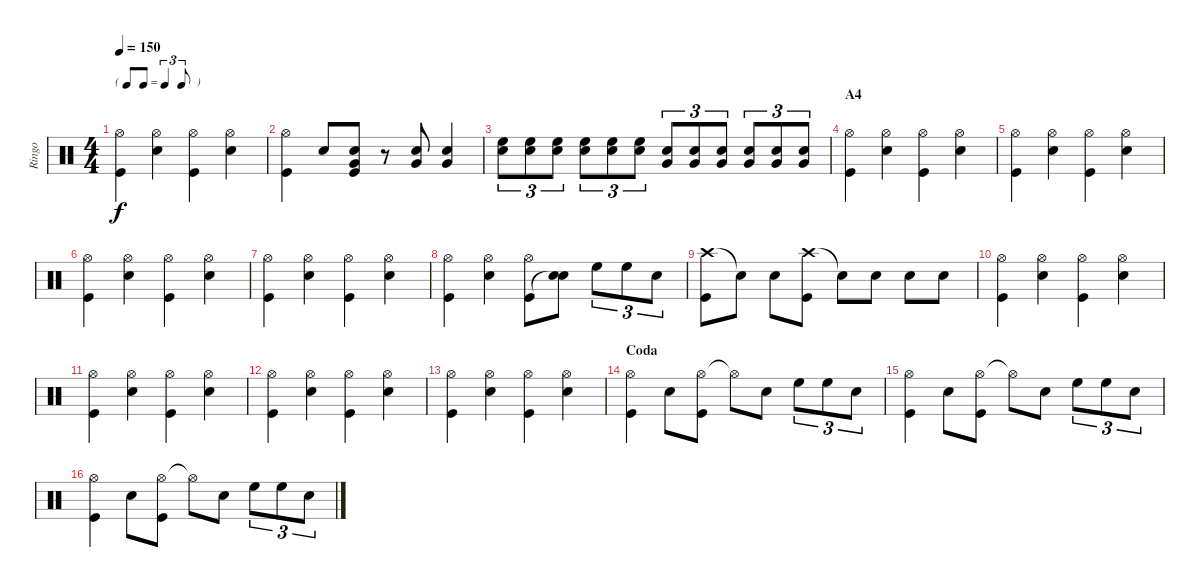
\track ("Ringo" "Ringo") {instrument percussion}
\staff {score}
\articulation defaults
\ts (4 4)
\tf triplet8th
\tempo 150
\clef neutral
\ks c
("Hi-Hat (open)" "Kick (hit)").4{dy f} ("Hi-Hat (open)" "Snare (hit) 2").4 ("Hi-Hat (open)" "Kick (hit)").4 ("Hi-Hat (open)" "Snare (hit) 2").4 |
("Hi-Hat (open)" "Kick (hit)").4 "Snare (hit) 2".8 ("Very Low Tom (hit)" "Snare (hit) 2" "Kick (hit)").8 r.8 ("Very Low Tom (hit)" "Snare (hit) 2").8 ("Very Low Tom (hit)" "Snare (hit) 2").4 |
("High Floor Tom (hit)" "Snare (hit) 2").8{tu (3 2)} ("High Floor Tom (hit)" "Snare (hit) 2").8{tu (3 2)} ("High Floor Tom (hit)" "Snare (hit) 2").8{tu (3 2)} ("High Floor Tom (hit)" "Snare (hit) 2").8{tu (3 2)} ("High Floor Tom (hit)" "Snare (hit) 2").8{tu (3 2)} ("High Floor Tom (hit)" "Snare (hit) 2").8{tu (3 2)} ("Very Low Tom (hit)" "Snare (hit) 2").8{tu (3 2)} ("Very Low Tom (hit)" "Snare (hit) 2").8{tu (3 2)} ("Very Low Tom (hit)" "Snare (hit) 2").8{tu (3 2)} ("Very Low Tom (hit)" "Snare (hit) 2").8{tu (3 2)} ("Very Low Tom (hit)" "Snare (hit) 2").8{tu (3 2)} ("Very Low Tom (hit)" "Snare (hit) 2").8{tu (3 2)} |
\section ("" "A4")
("Hi-Hat (open)" "Kick (hit)").4 ("Hi-Hat (open)" "Snare (hit) 2").4 ("Hi-Hat (open)" "Kick (hit)").4 ("Hi-Hat (open)" "Snare (hit) 2").4 |
("Hi-Hat (open)" "Kick (hit)").4 ("Hi-Hat (open)" "Snare (hit) 2").4 ("Hi-Hat (open)" "Kick (hit)").4 ("Hi-Hat (open)" "Snare (hit) 2").4 |
("Hi-Hat (open)" "Kick (hit)").4 ("Hi-Hat (open)" "Snare (hit) 2").4 ("Hi-Hat (open)" "Kick (hit)").4 ("Hi-Hat (open)" "Snare (hit) 2").4 |
("Hi-Hat (open)" "Kick (hit)").4 ("Hi-Hat (open)" "Snare (hit) 2").4 ("Hi-Hat (open)" "Kick (hit)").4 ("Hi-Hat (open)" "Snare (hit) 2").4 |
("Hi-Hat (open)" "Kick (hit)").4 ("Hi-Hat (open)" "Snare (hit) 2").4 ("Hi-Hat (open)" "Kick (hit)").8 ("Snare (hit) 2" "Snare (hit)"{t}).8 "High Floor Tom (hit)".8{tu (3 2)} "High Floor Tom (hit)".8{tu (3 2)} "Snare (hit) 2".8{tu (3 2)} |
("Crash high (hit)" "Kick (hit)").8 "Snare (hit)"{t}.8 "Snare (hit) 2".8 ("Crash high (hit)" "Kick (hit)").8 "Snare (hit)"{t}.8 "Snare (hit) 2".8 "Snare (hit) 2".8 "Snare (hit) 2".8 |
("Hi-Hat (open)" "Kick (hit)").4 ("Hi-Hat (open)" "Snare (hit) 2").4 ("Hi-Hat (open)" "Kick (hit)").4 ("Hi-Hat (open)" "Snare (hit) 2").4 |
("Hi-Hat (open)" "Kick (hit)").4 ("Hi-Hat (open)" "Snare (hit) 2").4 ("Hi-Hat (open)" "Kick (hit)").4 ("Hi-Hat (open)" "Snare (hit) 2").4 |
("Hi-Hat (open)" "Kick (hit)").4 ("Hi-Hat (open)" "Snare (hit) 2").4 ("Hi-Hat (open)" "Kick (hit)").4 ("Hi-Hat (open)" "Snare (hit) 2").4 |
("Hi-Hat (open)" "Kick (hit)").4 ("Hi-Hat (open)" "Snare (hit) 2").4 ("Hi-Hat (open)" "Kick (hit)").4 ("Hi-Hat (open)" "Snare (hit) 2").4 |
\section ("" "Coda")
("Hi-Hat (open)" "Kick (hit)").4 "Snare (hit) 2".8 ("Hi-Hat (open)" "Kick (hit)").8 "Hi-Hat (open)"{t}.8 "Snare (hit) 2".8 "High Floor Tom (hit)".8{tu (3 2)} "High Floor Tom (hit)".8{tu (3 2)} "Snare (hit) 2".8{tu (3 2)} |
("Hi-Hat (open)" "Kick (hit)").4 "Snare (hit) 2".8 ("Hi-Hat (open)" "Kick (hit)").8 "Hi-Hat (open)"{t}.8 "Snare (hit) 2".8 "High Floor Tom (hit)".8{tu (3 2)} "High Floor Tom (hit)".8{tu (3 2)} "Snare (hit) 2".8{tu (3 2)} |
("Hi-Hat (open)" "Kick (hit)").4 "Snare (hit) 2".8 ("Hi-Hat (open)" "Kick (hit)").8 "Hi-Hat (open)"{t}.8 "Snare (hit) 2".8 "High Floor Tom (hit)".8{tu (3 2)} "High Floor Tom (hit)".8{tu (3 2)} "Snare (hit) 2".8{tu (3 2)}
